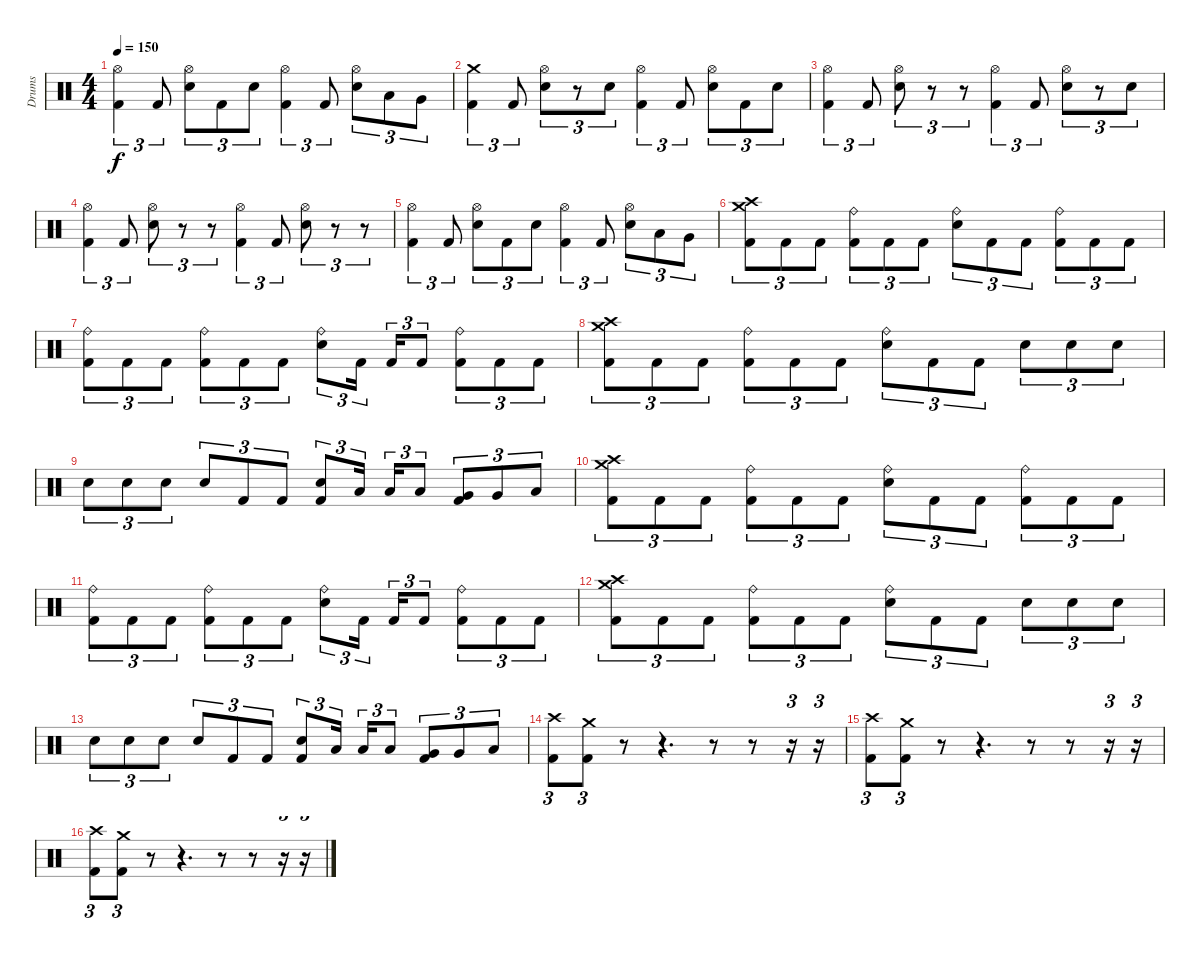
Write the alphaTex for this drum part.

\track ("Drums" "Drums") {instrument percussion}
\staff {score}
\articulation defaults
\ts (4 4)
\tempo 150
\clef neutral
\ks c
("Hi-Hat (open)" "Kick (hit) 2").4{tu (3 2) dy f} "Kick (hit) 2".8{tu (3 2)} ("Hi-Hat (open)" "Electric Snare (hit)").8{tu (3 2)} "Kick (hit) 2".8{tu (3 2)} "Electric Snare (hit)".8{tu (3 2)} ("Hi-Hat (open)" "Kick (hit) 2").4{tu (3 2)} "Kick (hit) 2".8{tu (3 2)} ("Hi-Hat (open)" "Electric Snare (hit)").8{tu (3 2)} "Low Tom (hit)".8{tu (3 2)} "Very Low Tom (hit)".8{tu (3 2)} |
("Crash medium (hit)" "Kick (hit) 2").4{tu (3 2)} "Kick (hit) 2".8{tu (3 2)} ("Hi-Hat (open)" "Electric Snare (hit)").8{tu (3 2)} r.8{tu (3 2)} "Electric Snare (hit)".8{tu (3 2)} ("Hi-Hat (open)" "Kick (hit) 2").4{tu (3 2)} "Kick (hit) 2".8{tu (3 2)} ("Hi-Hat (open)" "Electric Snare (hit)").8{tu (3 2)} "Kick (hit) 2".8{tu (3 2)} "Electric Snare (hit)".8{tu (3 2)} |
("Hi-Hat (open)" "Kick (hit) 2").4{tu (3 2)} "Kick (hit) 2".8{tu (3 2)} ("Hi-Hat (open)" "Electric Snare (hit)").8{tu (3 2)} r.8{tu (3 2)} r.8{tu (3 2)} ("Hi-Hat (open)" "Kick (hit) 2").4{tu (3 2)} "Kick (hit) 2".8{tu (3 2)} ("Hi-Hat (open)" "Electric Snare (hit)").8{tu (3 2)} r.8{tu (3 2)} "Electric Snare (hit)".8{tu (3 2)} |
("Hi-Hat (open)" "Kick (hit) 2").4{tu (3 2)} "Kick (hit) 2".8{tu (3 2)} ("Hi-Hat (open)" "Electric Snare (hit)").8{tu (3 2)} r.8{tu (3 2)} r.8{tu (3 2)} ("Hi-Hat (open)" "Kick (hit) 2").4{tu (3 2)} "Kick (hit) 2".8{tu (3 2)} ("Hi-Hat (open)" "Electric Snare (hit)").8{tu (3 2)} r.8{tu (3 2)} r.8{tu (3 2)} |
("Hi-Hat (open)" "Kick (hit) 2").4{tu (3 2)} "Kick (hit) 2".8{tu (3 2)} ("Hi-Hat (open)" "Electric Snare (hit)").8{tu (3 2)} "Kick (hit) 2".8{tu (3 2)} "Electric Snare (hit)".8{tu (3 2)} ("Hi-Hat (open)" "Kick (hit) 2").4{tu (3 2)} "Kick (hit) 2".8{tu (3 2)} ("Hi-Hat (open)" "Electric Snare (hit)").8{tu (3 2)} "Low Tom (hit)".8{tu (3 2)} "Very Low Tom (hit)".8{tu (3 2)} |
("Crash high (hit)" "Crash medium (hit)" "Kick (hit) 2").8{tu (3 2)} "Kick (hit) 2".8{tu (3 2)} "Kick (hit) 2".8{tu (3 2)} ("Ride (bell)" "Kick (hit) 2").8{tu (3 2)} "Kick (hit) 2".8{tu (3 2)} "Kick (hit) 2".8{tu (3 2)} ("Ride (bell)" "Electric Snare (hit)").8{tu (3 2)} "Kick (hit) 2".8{tu (3 2)} "Kick (hit) 2".8{tu (3 2)} ("Ride (bell)" "Kick (hit) 2").8{tu (3 2)} "Kick (hit) 2".8{tu (3 2)} "Kick (hit) 2".8{tu (3 2)} |
("Ride (bell)" "Kick (hit) 2").8{tu (3 2)} "Kick (hit) 2".8{tu (3 2)} "Kick (hit) 2".8{tu (3 2)} ("Ride (bell)" "Kick (hit) 2").8{tu (3 2)} "Kick (hit) 2".8{tu (3 2)} "Kick (hit) 2".8{tu (3 2)} ("Ride (bell)" "Electric Snare (hit)").8{tu (3 2)} "Kick (hit) 2".16{tu (3 2) beam splitsecondary} "Kick (hit) 2".16{tu (3 2)} "Kick (hit) 2".8{tu (3 2)} ("Ride (bell)" "Kick (hit) 2").8{tu (3 2)} "Kick (hit) 2".8{tu (3 2)} "Kick (hit) 2".8{tu (3 2)} |
("Crash high (hit)" "Crash medium (hit)" "Kick (hit) 2").8{tu (3 2)} "Kick (hit) 2".8{tu (3 2)} "Kick (hit) 2".8{tu (3 2)} ("Ride (bell)" "Kick (hit) 2").8{tu (3 2)} "Kick (hit) 2".8{tu (3 2)} "Kick (hit) 2".8{tu (3 2)} ("Ride (bell)" "Electric Snare (hit)").8{tu (3 2)} "Kick (hit) 2".8{tu (3 2)} "Kick (hit) 2".8{tu (3 2)} "Electric Snare (hit)".8{tu (3 2)} "Electric Snare (hit)".8{tu (3 2)} "Electric Snare (hit)".8{tu (3 2)} |
"Electric Snare (hit)".8{tu (3 2)} "Electric Snare (hit)".8{tu (3 2)} "Electric Snare (hit)".8{tu (3 2)} "Electric Snare (hit)".8{tu (3 2)} "Kick (hit) 2".8{tu (3 2)} "Kick (hit) 2".8{tu (3 2)} ("Electric Snare (hit)" "Kick (hit) 2").8{tu (3 2)} "Low Tom (hit)".16{tu (3 2) beam splitsecondary} "Low Tom (hit)".16{tu (3 2)} "Low Tom (hit)".8{tu (3 2)} ("Very Low Tom (hit)" "Kick (hit) 2").8{tu (3 2)} "Very Low Tom (hit)".8{tu (3 2)} "Low Floor Tom (hit)".8{tu (3 2)} |
("Crash high (hit)" "Crash medium (hit)" "Kick (hit) 2").8{tu (3 2)} "Kick (hit) 2".8{tu (3 2)} "Kick (hit) 2".8{tu (3 2)} ("Ride (bell)" "Kick (hit) 2").8{tu (3 2)} "Kick (hit) 2".8{tu (3 2)} "Kick (hit) 2".8{tu (3 2)} ("Ride (bell)" "Electric Snare (hit)").8{tu (3 2)} "Kick (hit) 2".8{tu (3 2)} "Kick (hit) 2".8{tu (3 2)} ("Ride (bell)" "Kick (hit) 2").8{tu (3 2)} "Kick (hit) 2".8{tu (3 2)} "Kick (hit) 2".8{tu (3 2)} |
("Ride (bell)" "Kick (hit) 2").8{tu (3 2)} "Kick (hit) 2".8{tu (3 2)} "Kick (hit) 2".8{tu (3 2)} ("Ride (bell)" "Kick (hit) 2").8{tu (3 2)} "Kick (hit) 2".8{tu (3 2)} "Kick (hit) 2".8{tu (3 2)} ("Ride (bell)" "Electric Snare (hit)").8{tu (3 2)} "Kick (hit) 2".16{tu (3 2) beam splitsecondary} "Kick (hit) 2".16{tu (3 2)} "Kick (hit) 2".8{tu (3 2)} ("Ride (bell)" "Kick (hit) 2").8{tu (3 2)} "Kick (hit) 2".8{tu (3 2)} "Kick (hit) 2".8{tu (3 2)} |
("Crash high (hit)" "Crash medium (hit)" "Kick (hit) 2").8{tu (3 2)} "Kick (hit) 2".8{tu (3 2)} "Kick (hit) 2".8{tu (3 2)} ("Ride (bell)" "Kick (hit) 2").8{tu (3 2)} "Kick (hit) 2".8{tu (3 2)} "Kick (hit) 2".8{tu (3 2)} ("Ride (bell)" "Electric Snare (hit)").8{tu (3 2)} "Kick (hit) 2".8{tu (3 2)} "Kick (hit) 2".8{tu (3 2)} "Electric Snare (hit)".8{tu (3 2)} "Electric Snare (hit)".8{tu (3 2)} "Electric Snare (hit)".8{tu (3 2)} |
"Electric Snare (hit)".8{tu (3 2)} "Electric Snare (hit)".8{tu (3 2)} "Electric Snare (hit)".8{tu (3 2)} "Electric Snare (hit)".8{tu (3 2)} "Kick (hit) 2".8{tu (3 2)} "Kick (hit) 2".8{tu (3 2)} ("Electric Snare (hit)" "Kick (hit) 2").8{tu (3 2)} "Low Tom (hit)".16{tu (3 2) beam splitsecondary} "Low Tom (hit)".16{tu (3 2)} "Low Tom (hit)".8{tu (3 2)} ("Very Low Tom (hit)" "Kick (hit) 2").8{tu (3 2)} "Very Low Tom (hit)".8{tu (3 2)} "Low Floor Tom (hit)".8{tu (3 2)} |
("Crash high (hit)" "Kick (hit) 2").8{tu (3 2)} ("Crash medium (hit)" "Kick (hit) 2").8{tu (3 2)} r.8 r.4{d volume 0} r.8 r.8 r.16{tu (3 2)} r.16{tu (3 2)} |
("Crash high (hit)" "Kick (hit) 2").8{tu (3 2) volume 13} ("Crash medium (hit)" "Kick (hit) 2").8{tu (3 2)} r.8 r.4{d volume 0} r.8 r.8 r.16{tu (3 2)} r.16{tu (3 2)} |
("Crash high (hit)" "Kick (hit) 2").8{tu (3 2) volume 13} ("Crash medium (hit)" "Kick (hit) 2").8{tu (3 2)} r.8 r.4{d volume 0} r.8 r.8 r.16{tu (3 2)} r.16{tu (3 2)}
